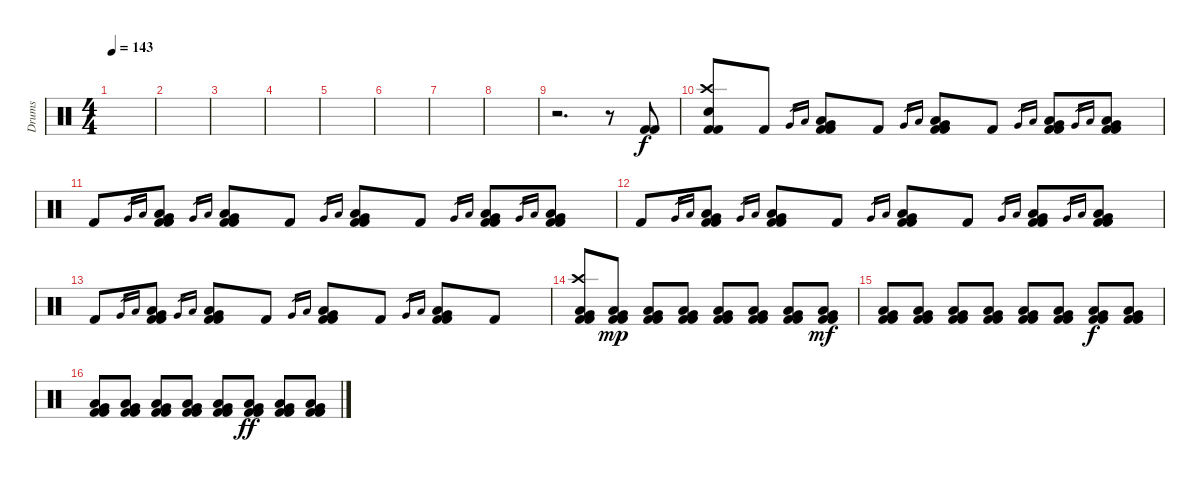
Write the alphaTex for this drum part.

\track ("Drums" "Drums") {instrument percussion}
\staff {score}
\articulation defaults
\ts (4 4)
\tempo 143
\clef neutral
\ks c
|
|
|
|
|
|
|
|
r.2{d} r.8 ("Kick (hit) 2" "Kick (hit) 2").8 |
("Crash high (hit)" "Electric Snare (hit)" "Kick (hit) 2" "Kick (hit) 2").8 "Kick (hit) 2".8 "Very Low Tom (hit)".16{gr} "Low Floor Tom (hit)".16{gr} ("Very Low Tom (hit)" "Low Floor Tom (hit)" "Kick (hit) 2" "Kick (hit) 2").8 "Kick (hit) 2".8 "Very Low Tom (hit)".16{gr} "Low Floor Tom (hit)".16{gr} ("Very Low Tom (hit)" "Low Floor Tom (hit)" "Kick (hit) 2" "Kick (hit) 2").8 "Kick (hit) 2".8 "Very Low Tom (hit)".16{gr} "Low Floor Tom (hit)".16{gr} ("Very Low Tom (hit)" "Low Floor Tom (hit)" "Kick (hit) 2" "Kick (hit) 2").8 "Very Low Tom (hit)".16{gr} "Low Floor Tom (hit)".16{gr} ("Very Low Tom (hit)" "Low Floor Tom (hit)" "Kick (hit) 2" "Kick (hit) 2").8 |
"Kick (hit) 2".8 "Very Low Tom (hit)".16{gr} "Low Floor Tom (hit)".16{gr} ("Very Low Tom (hit)" "Low Floor Tom (hit)" "Kick (hit) 2" "Kick (hit) 2").8 "Very Low Tom (hit)".16{gr} "Low Floor Tom (hit)".16{gr} ("Very Low Tom (hit)" "Low Floor Tom (hit)" "Kick (hit) 2" "Kick (hit) 2").8 "Kick (hit) 2".8 "Very Low Tom (hit)".16{gr} "Low Floor Tom (hit)".16{gr} ("Very Low Tom (hit)" "Low Floor Tom (hit)" "Kick (hit) 2" "Kick (hit) 2").8 "Kick (hit) 2".8 "Very Low Tom (hit)".16{gr} "Low Floor Tom (hit)".16{gr} ("Very Low Tom (hit)" "Low Floor Tom (hit)" "Kick (hit) 2" "Kick (hit) 2").8 "Very Low Tom (hit)".16{gr} "Low Floor Tom (hit)".16{gr} ("Very Low Tom (hit)" "Low Floor Tom (hit)" "Kick (hit) 2" "Kick (hit) 2").8 |
"Kick (hit) 2".8 "Very Low Tom (hit)".16{gr} "Low Floor Tom (hit)".16{gr} ("Very Low Tom (hit)" "Low Floor Tom (hit)" "Kick (hit) 2" "Kick (hit) 2").8 "Very Low Tom (hit)".16{gr} "Low Floor Tom (hit)".16{gr} ("Very Low Tom (hit)" "Low Floor Tom (hit)" "Kick (hit) 2" "Kick (hit) 2").8 "Kick (hit) 2".8 "Very Low Tom (hit)".16{gr} "Low Floor Tom (hit)".16{gr} ("Very Low Tom (hit)" "Low Floor Tom (hit)" "Kick (hit) 2" "Kick (hit) 2").8 "Kick (hit) 2".8 "Very Low Tom (hit)".16{gr} "Low Floor Tom (hit)".16{gr} ("Very Low Tom (hit)" "Low Floor Tom (hit)" "Kick (hit) 2" "Kick (hit) 2").8 "Very Low Tom (hit)".16{gr} "Low Floor Tom (hit)".16{gr} ("Very Low Tom (hit)" "Low Floor Tom (hit)" "Kick (hit) 2" "Kick (hit) 2").8 |
"Kick (hit) 2".8 "Very Low Tom (hit)".16{gr} "Low Floor Tom (hit)".16{gr} ("Very Low Tom (hit)" "Low Floor Tom (hit)" "Kick (hit) 2" "Kick (hit) 2").8 "Very Low Tom (hit)".16{gr} "Low Floor Tom (hit)".16{gr} ("Very Low Tom (hit)" "Low Floor Tom (hit)" "Kick (hit) 2" "Kick (hit) 2").8 "Kick (hit) 2".8 "Very Low Tom (hit)".16{gr} "Low Floor Tom (hit)".16{gr} ("Very Low Tom (hit)" "Low Floor Tom (hit)" "Kick (hit) 2" "Kick (hit) 2").8 "Kick (hit) 2".8 "Very Low Tom (hit)".16{gr} "Low Floor Tom (hit)".16{gr} ("Very Low Tom (hit)" "Low Floor Tom (hit)" "Kick (hit) 2" "Kick (hit) 2").8 "Kick (hit) 2".8 |
("Crash high (hit)" "Very Low Tom (hit)" "Low Floor Tom (hit)" "Kick (hit) 2" "Kick (hit) 2").8 ("Very Low Tom (hit)" "Low Floor Tom (hit)" "Kick (hit) 2" "Kick (hit) 2").8{dy mp} ("Very Low Tom (hit)" "Low Floor Tom (hit)" "Kick (hit) 2" "Kick (hit) 2").8 ("Very Low Tom (hit)" "Low Floor Tom (hit)" "Kick (hit) 2" "Kick (hit) 2").8 ("Very Low Tom (hit)" "Low Floor Tom (hit)" "Kick (hit) 2" "Kick (hit) 2").8 ("Very Low Tom (hit)" "Low Floor Tom (hit)" "Kick (hit) 2" "Kick (hit) 2").8 ("Very Low Tom (hit)" "Low Floor Tom (hit)" "Kick (hit) 2" "Kick (hit) 2").8 ("Very Low Tom (hit)" "Low Floor Tom (hit)" "Kick (hit) 2" "Kick (hit) 2").8{dy mf} |
("Very Low Tom (hit)" "Low Floor Tom (hit)" "Kick (hit) 2" "Kick (hit) 2").8 ("Very Low Tom (hit)" "Low Floor Tom (hit)" "Kick (hit) 2" "Kick (hit) 2").8 ("Very Low Tom (hit)" "Low Floor Tom (hit)" "Kick (hit) 2" "Kick (hit) 2").8 ("Very Low Tom (hit)" "Low Floor Tom (hit)" "Kick (hit) 2" "Kick (hit) 2").8 ("Very Low Tom (hit)" "Low Floor Tom (hit)" "Kick (hit) 2" "Kick (hit) 2").8 ("Very Low Tom (hit)" "Low Floor Tom (hit)" "Kick (hit) 2" "Kick (hit) 2").8 ("Very Low Tom (hit)" "Low Floor Tom (hit)" "Kick (hit) 2" "Kick (hit) 2").8{dy f} ("Very Low Tom (hit)" "Low Floor Tom (hit)" "Kick (hit) 2" "Kick (hit) 2").8 |
("Very Low Tom (hit)" "Low Floor Tom (hit)" "Kick (hit) 2" "Kick (hit) 2").8 ("Very Low Tom (hit)" "Low Floor Tom (hit)" "Kick (hit) 2" "Kick (hit) 2").8 ("Very Low Tom (hit)" "Low Floor Tom (hit)" "Kick (hit) 2" "Kick (hit) 2").8 ("Very Low Tom (hit)" "Low Floor Tom (hit)" "Kick (hit) 2" "Kick (hit) 2").8 ("Very Low Tom (hit)" "Low Floor Tom (hit)" "Kick (hit) 2" "Kick (hit) 2").8 ("Very Low Tom (hit)" "Low Floor Tom (hit)" "Kick (hit) 2" "Kick (hit) 2").8{dy ff} ("Very Low Tom (hit)" "Low Floor Tom (hit)" "Kick (hit) 2" "Kick (hit) 2").8 ("Very Low Tom (hit)" "Low Floor Tom (hit)" "Kick (hit) 2" "Kick (hit) 2").8
